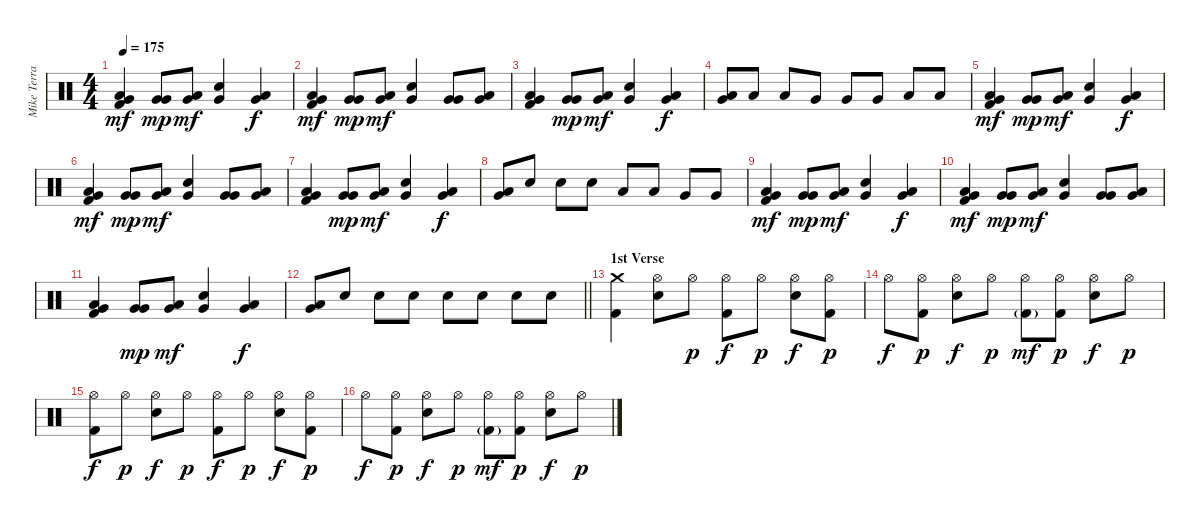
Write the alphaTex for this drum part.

\track ("Mike Terrana" "Mike Terra") {instrument percussion}
\staff {score}
\articulation defaults
\ts (4 4)
\tempo 175
\clef neutral
\ks c
("Low Tom (hit)" "Very Low Tom (hit)" "Kick (hit) 2").4{dy mf} ("Very Low Tom (hit)" "Very Low Tom (hit)").8{dy mp} ("Low Tom (hit)" "Very Low Tom (hit)").8{dy mf} ("Snare (hit) 2" "Very Low Tom (hit)").4 ("Low Tom (hit)" "Very Low Tom (hit)").4{dy f} |
("Low Tom (hit)" "Very Low Tom (hit)" "Kick (hit) 2").4{dy mf} ("Very Low Tom (hit)" "Very Low Tom (hit)").8{dy mp} ("Low Tom (hit)" "Very Low Tom (hit)").8{dy mf} ("Snare (hit) 2" "Very Low Tom (hit)").4 ("Very Low Tom (hit)" "Very Low Tom (hit)").8 ("Low Tom (hit)" "Very Low Tom (hit)").8 |
("Low Tom (hit)" "Very Low Tom (hit)" "Kick (hit) 2").4 ("Very Low Tom (hit)" "Very Low Tom (hit)").8{dy mp} ("Low Tom (hit)" "Very Low Tom (hit)").8{dy mf} ("Snare (hit) 2" "Very Low Tom (hit)").4 ("Low Tom (hit)" "Very Low Tom (hit)").4{dy f} |
("Low Tom (hit)" "Very Low Tom (hit)").8 "Low Tom (hit)".8 "Low Tom (hit)".8 "Very Low Tom (hit)".8 "Very Low Tom (hit)".8 "Very Low Tom (hit)".8 "Low Floor Tom (hit)".8 "Low Floor Tom (hit)".8 |
("Low Tom (hit)" "Very Low Tom (hit)" "Kick (hit) 2").4{dy mf} ("Very Low Tom (hit)" "Very Low Tom (hit)").8{dy mp} ("Low Tom (hit)" "Very Low Tom (hit)").8{dy mf} ("Snare (hit) 2" "Very Low Tom (hit)").4 ("Low Tom (hit)" "Very Low Tom (hit)").4{dy f} |
("Low Tom (hit)" "Very Low Tom (hit)" "Kick (hit) 2").4{dy mf} ("Very Low Tom (hit)" "Very Low Tom (hit)").8{dy mp} ("Low Tom (hit)" "Very Low Tom (hit)").8{dy mf} ("Snare (hit) 2" "Very Low Tom (hit)").4 ("Very Low Tom (hit)" "Very Low Tom (hit)").8 ("Low Tom (hit)" "Very Low Tom (hit)").8 |
("Low Tom (hit)" "Very Low Tom (hit)" "Kick (hit) 2").4 ("Very Low Tom (hit)" "Very Low Tom (hit)").8{dy mp} ("Low Tom (hit)" "Very Low Tom (hit)").8{dy mf} ("Snare (hit) 2" "Very Low Tom (hit)").4 ("Low Tom (hit)" "Very Low Tom (hit)").4{dy f} |
("Low Tom (hit)" "Very Low Tom (hit)").8 "Snare (hit) 2".8 "Snare (hit) 2".8 "Snare (hit) 2".8 "Low Tom (hit)".8 "Low Tom (hit)".8 "Very Low Tom (hit)".8 "Very Low Tom (hit)".8 |
("Low Tom (hit)" "Very Low Tom (hit)" "Kick (hit) 2").4{dy mf} ("Very Low Tom (hit)" "Very Low Tom (hit)").8{dy mp} ("Low Tom (hit)" "Very Low Tom (hit)").8{dy mf} ("Snare (hit) 2" "Very Low Tom (hit)").4 ("Low Tom (hit)" "Very Low Tom (hit)").4{dy f} |
("Low Tom (hit)" "Very Low Tom (hit)" "Kick (hit) 2").4{dy mf} ("Very Low Tom (hit)" "Very Low Tom (hit)").8{dy mp} ("Low Tom (hit)" "Very Low Tom (hit)").8{dy mf} ("Snare (hit) 2" "Very Low Tom (hit)").4 ("Very Low Tom (hit)" "Very Low Tom (hit)").8 ("Low Tom (hit)" "Very Low Tom (hit)").8 |
("Low Tom (hit)" "Very Low Tom (hit)" "Kick (hit) 2").4 ("Very Low Tom (hit)" "Very Low Tom (hit)").8{dy mp} ("Low Tom (hit)" "Very Low Tom (hit)").8{dy mf} ("Snare (hit) 2" "Very Low Tom (hit)").4 ("Low Tom (hit)" "Very Low Tom (hit)").4{dy f} |
\barLineRight lightlight
("Low Tom (hit)" "Very Low Tom (hit)").8 "Snare (hit) 2".8 "Snare (hit) 2".8 "Snare (hit) 2".8 "Snare (hit) 2".8 "Snare (hit) 2".8 "Snare (hit) 2".8 "Snare (hit) 2".8 |
\section ("" "1st Verse")
("Crash medium (hit)" "Kick (hit) 2").4 ("Hi-Hat (open)" "Snare (hit) 2").8 "Hi-Hat (open)".8{dy p} ("Hi-Hat (open)" "Kick (hit) 2").8{dy f} "Hi-Hat (open)".8{dy p} ("Hi-Hat (open)" "Snare (hit) 2").8{dy f} ("Hi-Hat (open)" "Kick (hit) 2").8{dy p} |
"Hi-Hat (open)".8{dy f} ("Hi-Hat (open)" "Kick (hit) 2").8{dy p} ("Hi-Hat (open)" "Snare (hit) 2").8{dy f} "Hi-Hat (open)".8{dy p} ("Hi-Hat (open)" "Kick (hit) 2"{g}).8{dy mf} ("Hi-Hat (open)" "Kick (hit) 2").8{dy p} ("Hi-Hat (open)" "Snare (hit) 2").8{dy f} "Hi-Hat (open)".8{dy p} |
("Hi-Hat (open)" "Kick (hit) 2").8{dy f} "Hi-Hat (open)".8{dy p} ("Hi-Hat (open)" "Snare (hit) 2").8{dy f} "Hi-Hat (open)".8{dy p} ("Hi-Hat (open)" "Kick (hit) 2").8{dy f} "Hi-Hat (open)".8{dy p} ("Hi-Hat (open)" "Snare (hit) 2").8{dy f} ("Hi-Hat (open)" "Kick (hit) 2").8{dy p} |
"Hi-Hat (open)".8{dy f} ("Hi-Hat (open)" "Kick (hit) 2").8{dy p} ("Hi-Hat (open)" "Snare (hit) 2").8{dy f} "Hi-Hat (open)".8{dy p} ("Hi-Hat (open)" "Kick (hit) 2"{g}).8{dy mf} ("Hi-Hat (open)" "Kick (hit) 2").8{dy p} ("Hi-Hat (open)" "Snare (hit) 2").8{dy f} "Hi-Hat (open)".8{dy p}
